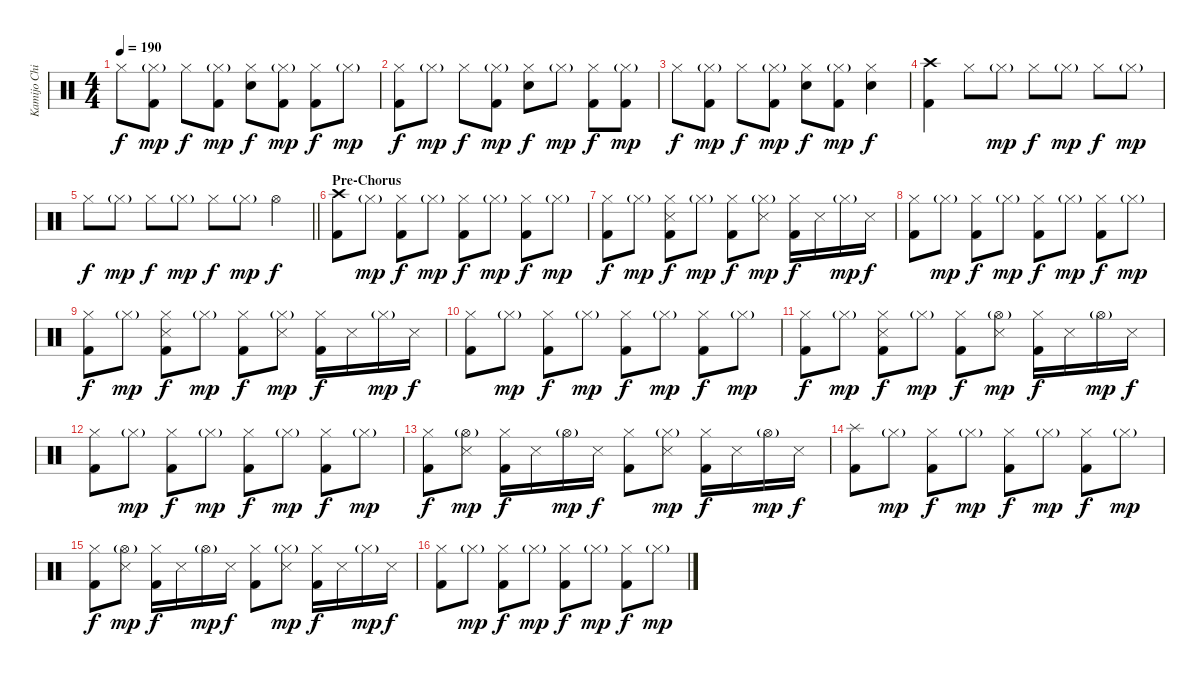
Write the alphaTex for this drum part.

\track ("Kamijo Chihiro" "Kamijo Chi") {instrument percussion}
\staff {score}
\articulation defaults
\ts (4 4)
\tempo 190
\clef neutral
\ks c "Hi-Hat (closed)".8{dy f}
("Hi-Hat (closed)"{g} "Kick (hit) 2").8{dy mp} "Hi-Hat (closed)".8{dy f} ("Hi-Hat (closed)"{g} "Kick (hit) 2").8{dy mp} ("Hi-Hat (closed)" "Snare (hit) 2").8{dy f} ("Hi-Hat (closed)"{g} "Kick (hit) 2").8{dy mp} ("Hi-Hat (closed)" "Kick (hit) 2").8{dy f} "Hi-Hat (closed)"{g}.8{dy mp} |
("Hi-Hat (closed)" "Kick (hit) 2").8{dy f} "Hi-Hat (closed)"{g}.8{dy mp} "Hi-Hat (closed)".8{dy f} ("Hi-Hat (closed)"{g} "Kick (hit) 2").8{dy mp} ("Hi-Hat (closed)" "Snare (hit) 2").8{dy f} "Hi-Hat (closed)"{g}.8{dy mp} ("Hi-Hat (closed)" "Kick (hit) 2").8{dy f} ("Hi-Hat (closed)"{g} "Kick (hit) 2").8{dy mp} |
"Hi-Hat (closed)".8{dy f} ("Hi-Hat (closed)"{g} "Kick (hit) 2").8{dy mp} "Hi-Hat (closed)".8{dy f} ("Hi-Hat (closed)"{g} "Kick (hit) 2").8{dy mp} ("Hi-Hat (closed)" "Snare (hit) 2").8{dy f} ("Hi-Hat (closed)"{g} "Kick (hit) 2").8{dy mp} ("Hi-Hat (closed)" "Snare (hit) 2").4{dy f} |
("Crash high (hit)" "Kick (hit) 2").4 "Hi-Hat (closed)".8 "Hi-Hat (closed)"{g}.8{dy mp} "Hi-Hat (closed)".8{dy f} "Hi-Hat (closed)"{g}.8{dy mp} "Hi-Hat (closed)".8{dy f} "Hi-Hat (closed)"{g}.8{dy mp} |
\barLineRight lightlight "Hi-Hat (closed)".8{dy f} "Hi-Hat (closed)"{g}.8{dy mp} "Hi-Hat (closed)".8{dy f} "Hi-Hat (closed)"{g}.8{dy mp} "Hi-Hat (closed)".8{dy f} "Hi-Hat (closed)"{g}.8{dy mp} "Hi-Hat (open)".4{dy f}
|
\section ("" "Pre-Chorus")
("Crash high (hit)" "Kick (hit) 2").8 "Hi-Hat (closed)"{g}.8{dy mp} ("Hi-Hat (closed)" "Kick (hit) 2").8{dy f} "Hi-Hat (closed)"{g}.8{dy mp} ("Hi-Hat (closed)" "Kick (hit) 2").8{dy f} "Hi-Hat (closed)"{g}.8{dy mp} ("Hi-Hat (closed)" "Kick (hit) 2").8{dy f} "Hi-Hat (closed)"{g}.8{dy mp} |
("Hi-Hat (closed)" "Kick (hit) 2").8{dy f} "Hi-Hat (closed)"{g}.8{dy mp} ("Hi-Hat (closed)" "Snare (side stick) 3" "Kick (hit) 2").8{dy f} "Hi-Hat (closed)"{g}.8{dy mp} ("Hi-Hat (closed)" "Kick (hit) 2").8{dy f} ("Hi-Hat (closed)"{g} "Snare (side stick) 3").8{dy mp} ("Hi-Hat (closed)" "Kick (hit) 2").16{dy f} "Snare (side stick) 3".16 "Hi-Hat (closed)"{g}.16{dy mp} "Snare (side stick) 3".16{dy f} |
("Hi-Hat (closed)" "Kick (hit) 2").8 "Hi-Hat (closed)"{g}.8{dy mp} ("Hi-Hat (closed)" "Kick (hit) 2").8{dy f} "Hi-Hat (closed)"{g}.8{dy mp} ("Hi-Hat (closed)" "Kick (hit) 2").8{dy f} "Hi-Hat (closed)"{g}.8{dy mp} ("Hi-Hat (closed)" "Kick (hit) 2").8{dy f} "Hi-Hat (closed)"{g}.8{dy mp} |
("Hi-Hat (closed)" "Kick (hit) 2").8{dy f} "Hi-Hat (closed)"{g}.8{dy mp} ("Hi-Hat (closed)" "Snare (side stick) 3" "Kick (hit) 2").8{dy f} "Hi-Hat (closed)"{g}.8{dy mp} ("Hi-Hat (closed)" "Kick (hit) 2").8{dy f} ("Hi-Hat (closed)"{g} "Snare (side stick) 3").8{dy mp} ("Hi-Hat (closed)" "Kick (hit) 2").16{dy f} "Snare (side stick) 3".16 "Hi-Hat (closed)"{g}.16{dy mp} "Snare (side stick) 3".16{dy f} |
("Hi-Hat (closed)" "Kick (hit) 2").8 "Hi-Hat (closed)"{g}.8{dy mp} ("Hi-Hat (closed)" "Kick (hit) 2").8{dy f} "Hi-Hat (closed)"{g}.8{dy mp} ("Hi-Hat (closed)" "Kick (hit) 2").8{dy f} "Hi-Hat (closed)"{g}.8{dy mp} ("Hi-Hat (closed)" "Kick (hit) 2").8{dy f} "Hi-Hat (closed)"{g}.8{dy mp} |
("Hi-Hat (closed)" "Kick (hit) 2").8{dy f} "Hi-Hat (closed)"{g}.8{dy mp} ("Hi-Hat (closed)" "Snare (side stick) 3" "Kick (hit) 2").8{dy f} "Hi-Hat (closed)"{g}.8{dy mp} ("Hi-Hat (closed)" "Kick (hit) 2").8{dy f} ("Hi-Hat (open)"{g} "Snare (side stick) 3").8{dy mp} ("Hi-Hat (closed)" "Kick (hit) 2").16{dy f} "Snare (side stick) 3".16 "Hi-Hat (open)"{g}.16{dy mp} "Snare (side stick) 3".16{dy f} |
("Hi-Hat (closed)" "Kick (hit) 2").8 "Hi-Hat (closed)"{g}.8{dy mp} ("Hi-Hat (closed)" "Kick (hit) 2").8{dy f} "Hi-Hat (closed)"{g}.8{dy mp} ("Hi-Hat (closed)" "Kick (hit) 2").8{dy f} "Hi-Hat (closed)"{g}.8{dy mp} ("Hi-Hat (closed)" "Kick (hit) 2").8{dy f} "Hi-Hat (closed)"{g}.8{dy mp} |
("Hi-Hat (closed)" "Kick (hit) 2").8{dy f} ("Hi-Hat (open)"{g} "Snare (side stick) 3").8{dy mp} ("Hi-Hat (closed)" "Kick (hit) 2").16{dy f} "Snare (side stick) 3".16 "Hi-Hat (open)"{g}.16{dy mp} "Snare (side stick) 3".16{dy f} ("Hi-Hat (closed)" "Kick (hit) 2").8 ("Hi-Hat (closed)"{g} "Snare (side stick) 3").8{dy mp} ("Hi-Hat (closed)" "Kick (hit) 2").16{dy f} "Snare (side stick) 3".16 "Hi-Hat (open)"{g}.16{dy mp} "Snare (side stick) 3".16{dy f} |
("Splash (hit)" "Kick (hit) 2").8 "Hi-Hat (closed)"{g}.8{dy mp} ("Hi-Hat (closed)" "Kick (hit) 2").8{dy f} "Hi-Hat (closed)"{g}.8{dy mp} ("Hi-Hat (closed)" "Kick (hit) 2").8{dy f} "Hi-Hat (closed)"{g}.8{dy mp} ("Hi-Hat (closed)" "Kick (hit) 2").8{dy f} "Hi-Hat (closed)"{g}.8{dy mp} |
("Hi-Hat (closed)" "Kick (hit) 2").8{dy f} ("Hi-Hat (open)"{g} "Snare (side stick) 3").8{dy mp} ("Hi-Hat (closed)" "Kick (hit) 2").16{dy f} "Snare (side stick) 3".16 "Hi-Hat (open)"{g}.16{dy mp} "Snare (side stick) 3".16{dy f} ("Hi-Hat (closed)" "Kick (hit) 2").8 ("Hi-Hat (closed)"{g} "Snare (side stick) 3").8{dy mp} ("Hi-Hat (closed)" "Kick (hit) 2").16{dy f} "Snare (side stick) 3".16 "Hi-Hat (closed)"{g}.16{dy mp} "Snare (side stick) 3".16{dy f} |
("Hi-Hat (closed)" "Kick (hit) 2").8 "Hi-Hat (closed)"{g}.8{dy mp} ("Hi-Hat (closed)" "Kick (hit) 2").8{dy f} "Hi-Hat (closed)"{g}.8{dy mp} ("Hi-Hat (closed)" "Kick (hit) 2").8{dy f} "Hi-Hat (closed)"{g}.8{dy mp} ("Hi-Hat (closed)" "Kick (hit) 2").8{dy f} "Hi-Hat (closed)"{g}.8{dy mp}
